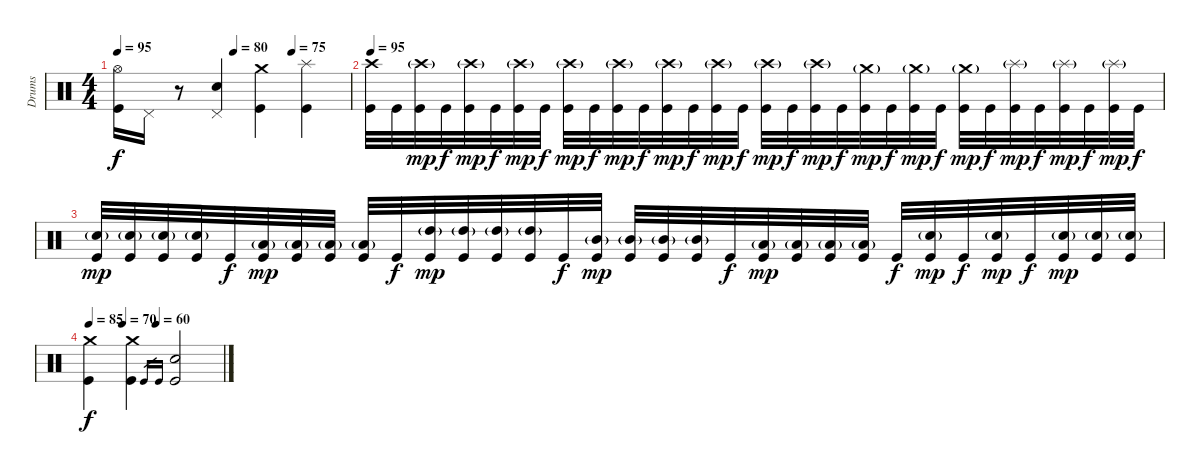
\track ("Drums" "Drums") {instrument percussion}
\staff {score}
\articulation defaults
\ts (4 4)
\tempo 95
\tempo (80 0.5)
\tempo (75 0.75)
\clef neutral
\ks c
("Hi-Hat (open)" "Kick (hit)").16{dy f} "Pedal Hi-Hat (hit)".16 r.8 ("Pedal Hi-Hat (hit)" "Electric Snare (hit)").4 ("Crash medium (hit)" "Kick (hit)").4 ("Splash (hit)" "Kick (hit)").4 |
\tempo 95
("Crash high (hit)" "Kick (hit)").32 "Kick (hit)".32 ("Crash high (hit)"{g} "Kick (hit)").32{dy mp} "Kick (hit)".32{dy f} ("Crash high (hit)"{g} "Kick (hit)").32{dy mp} "Kick (hit)".32{dy f} ("Crash high (hit)"{g} "Kick (hit)").32{dy mp} "Kick (hit)".32{dy f} ("Crash high (hit)"{g} "Kick (hit)").32{dy mp} "Kick (hit)".32{dy f} ("Crash high (hit)"{g} "Kick (hit)").32{dy mp} "Kick (hit)".32{dy f} ("Crash high (hit)"{g} "Kick (hit)").32{dy mp} "Kick (hit)".32{dy f} ("Crash high (hit)"{g} "Kick (hit)").32{dy mp} "Kick (hit)".32{dy f} ("Crash high (hit)"{g} "Kick (hit)").32{dy mp} "Kick (hit)".32{dy f} ("Crash high (hit)"{g} "Kick (hit)").32{dy mp} "Kick (hit)".32{dy f} ("Crash medium (hit)"{g} "Kick (hit)").32{dy mp} "Kick (hit)".32{dy f} ("Crash medium (hit)"{g} "Kick (hit)").32{dy mp} "Kick (hit)".32{dy f} ("Crash medium (hit)"{g} "Kick (hit)").32{dy mp} "Kick (hit)".32{dy f} ("Splash (hit)"{g} "Kick (hit)").32{dy mp} "Kick (hit)".32{dy f} ("Splash (hit)"{g} "Kick (hit)").32{dy mp} "Kick (hit)".32{dy f} ("Splash (hit)"{g} "Kick (hit)").32{dy mp} "Kick (hit)".32{dy f} |
("Electric Snare (hit)"{g} "Kick (hit)").32{dy mp} ("Electric Snare (hit)"{g} "Kick (hit)").32 ("Electric Snare (hit)"{g} "Kick (hit)").32 ("Electric Snare (hit)"{g} "Kick (hit)").32 "Kick (hit)".32{dy f} ("Low Tom (hit)"{g} "Kick (hit)").32{dy mp} ("Low Tom (hit)"{g} "Kick (hit)").32 ("Low Tom (hit)"{g} "Kick (hit)").32 ("Low Tom (hit)"{g} "Kick (hit)").32 "Kick (hit)".32{dy f} ("High Tom (hit)"{g} "Kick (hit)").32{dy mp} ("High Tom (hit)"{g} "Kick (hit)").32 ("High Tom (hit)"{g} "Kick (hit)").32 ("High Tom (hit)"{g} "Kick (hit)").32 "Kick (hit)".32{dy f} ("Mid Tom (hit)"{g} "Kick (hit)").32{dy mp} ("Mid Tom (hit)"{g} "Kick (hit)").32 ("Mid Tom (hit)"{g} "Kick (hit)").32 ("Mid Tom (hit)"{g} "Kick (hit)").32 "Kick (hit)".32{dy f} ("Low Floor Tom (hit)"{g} "Kick (hit)").32{dy mp} ("Low Floor Tom (hit)"{g} "Kick (hit)").32 ("Low Floor Tom (hit)"{g} "Kick (hit)").32 ("Low Floor Tom (hit)"{g} "Kick (hit)").32 "Kick (hit)".32{dy f} ("Electric Snare (hit)"{g} "Kick (hit)").32{dy mp} "Kick (hit)".32{dy f} ("Electric Snare (hit)"{g} "Kick (hit)").32{dy mp} "Kick (hit)".32{dy f} ("Electric Snare (hit)"{g} "Kick (hit)").32{dy mp} ("Electric Snare (hit)"{g} "Kick (hit)").32 ("Electric Snare (hit)"{g} "Kick (hit)").32 |
\tempo (60 0.5)
\tempo 85
\tempo (70 0.25)
("Crash medium (hit)" "Kick (hit)").4{dy f} ("Crash medium (hit)" "Kick (hit)").4 "Kick (hit)"{sl}.16{gr} "Kick (hit)".16{gr} ("Electric Snare (hit)" "Kick (hit)").2
